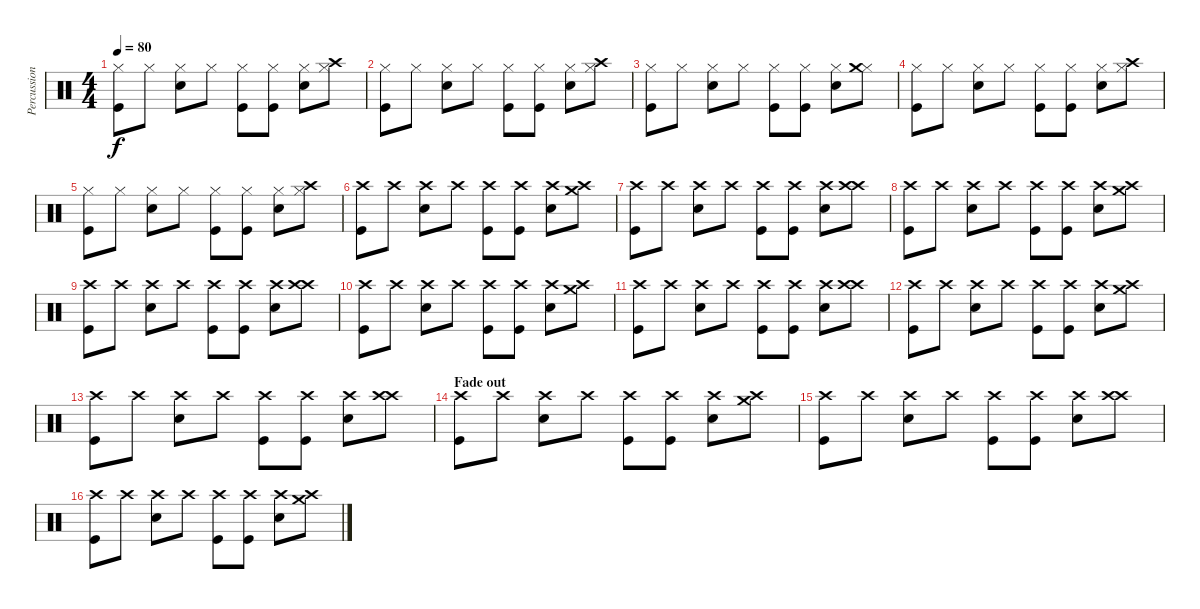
\track ("Percussions" "Percussion") {instrument percussion}
\staff {score}
\articulation defaults
\ts (4 4)
\tempo 80
\clef neutral
\ks c
("Hi-Hat (closed)" "Kick (hit)").8{dy f volume 16} "Hi-Hat (closed)".8 ("Hi-Hat (closed)" "Electric Snare (hit)").8 "Hi-Hat (closed)".8 ("Hi-Hat (closed)" "Kick (hit)").8 ("Hi-Hat (closed)" "Kick (hit)").8 ("Hi-Hat (closed)" "Electric Snare (hit)").8 ("Hi-Hat (closed)" "Crash high (hit)").8 |
("Hi-Hat (closed)" "Kick (hit)").8{volume 16} "Hi-Hat (closed)".8 ("Hi-Hat (closed)" "Electric Snare (hit)").8 "Hi-Hat (closed)".8 ("Hi-Hat (closed)" "Kick (hit)").8 ("Hi-Hat (closed)" "Kick (hit)").8 ("Hi-Hat (closed)" "Electric Snare (hit)").8 ("Hi-Hat (closed)" "Crash high (hit)").8 |
("Hi-Hat (closed)" "Kick (hit)").8{volume 16} "Hi-Hat (closed)".8 ("Hi-Hat (closed)" "Electric Snare (hit)").8 "Hi-Hat (closed)".8 ("Hi-Hat (closed)" "Kick (hit)").8 ("Hi-Hat (closed)" "Kick (hit)").8 ("Hi-Hat (closed)" "Electric Snare (hit)").8 ("Hi-Hat (closed)" "Crash medium (hit)").8 |
("Hi-Hat (closed)" "Kick (hit)").8{volume 16} "Hi-Hat (closed)".8 ("Hi-Hat (closed)" "Electric Snare (hit)").8 "Hi-Hat (closed)".8 ("Hi-Hat (closed)" "Kick (hit)").8 ("Hi-Hat (closed)" "Kick (hit)").8 ("Hi-Hat (closed)" "Electric Snare (hit)").8 ("Hi-Hat (closed)" "Crash high (hit)").8 |
("Hi-Hat (closed)" "Kick (hit)").8{volume 16} "Hi-Hat (closed)".8 ("Hi-Hat (closed)" "Electric Snare (hit)").8 "Hi-Hat (closed)".8 ("Hi-Hat (closed)" "Kick (hit)").8 ("Hi-Hat (closed)" "Kick (hit)").8 ("Hi-Hat (closed)" "Electric Snare (hit)").8 ("Hi-Hat (closed)" "Crash high (hit)").8 |
("Crash high (hit)" "Kick (hit)").8{volume 16} "Crash high (hit)".8 ("Crash high (hit)" "Electric Snare (hit)").8 "Crash high (hit)".8 ("Crash high (hit)" "Kick (hit)").8 ("Crash high (hit)" "Kick (hit)").8 ("Crash high (hit)" "Electric Snare (hit)").8 ("Crash high (hit)" "Crash medium (hit)").8 |
("Crash high (hit)" "Kick (hit)").8{volume 16} "Crash high (hit)".8 ("Crash high (hit)" "Electric Snare (hit)").8 "Crash high (hit)".8 ("Crash high (hit)" "Kick (hit)").8 ("Crash high (hit)" "Kick (hit)").8 ("Crash high (hit)" "Electric Snare (hit)").8 ("Crash high (hit)" "Crash high (hit)").8 |
("Crash high (hit)" "Kick (hit)").8{volume 16} "Crash high (hit)".8 ("Crash high (hit)" "Electric Snare (hit)").8 "Crash high (hit)".8 ("Crash high (hit)" "Kick (hit)").8 ("Crash high (hit)" "Kick (hit)").8 ("Crash high (hit)" "Electric Snare (hit)").8 ("Crash high (hit)" "Crash medium (hit)").8 |
("Crash high (hit)" "Kick (hit)").8{volume 16} "Crash high (hit)".8 ("Crash high (hit)" "Electric Snare (hit)").8 "Crash high (hit)".8 ("Crash high (hit)" "Kick (hit)").8 ("Crash high (hit)" "Kick (hit)").8 ("Crash high (hit)" "Electric Snare (hit)").8 ("Crash high (hit)" "Crash high (hit)").8 |
("Crash high (hit)" "Kick (hit)").8{volume 16} "Crash high (hit)".8 ("Crash high (hit)" "Electric Snare (hit)").8 "Crash high (hit)".8 ("Crash high (hit)" "Kick (hit)").8 ("Crash high (hit)" "Kick (hit)").8 ("Crash high (hit)" "Electric Snare (hit)").8 ("Crash high (hit)" "Crash medium (hit)").8 |
("Crash high (hit)" "Kick (hit)").8{volume 16} "Crash high (hit)".8 ("Crash high (hit)" "Electric Snare (hit)").8 "Crash high (hit)".8 ("Crash high (hit)" "Kick (hit)").8 ("Crash high (hit)" "Kick (hit)").8 ("Crash high (hit)" "Electric Snare (hit)").8 ("Crash high (hit)" "Crash high (hit)").8 |
("Crash high (hit)" "Kick (hit)").8{volume 16} "Crash high (hit)".8 ("Crash high (hit)" "Electric Snare (hit)").8 "Crash high (hit)".8 ("Crash high (hit)" "Kick (hit)").8 ("Crash high (hit)" "Kick (hit)").8 ("Crash high (hit)" "Electric Snare (hit)").8 ("Crash high (hit)" "Crash medium (hit)").8 |
("Crash high (hit)" "Kick (hit)").8{volume 16} "Crash high (hit)".8 ("Crash high (hit)" "Electric Snare (hit)").8 "Crash high (hit)".8 ("Crash high (hit)" "Kick (hit)").8 ("Crash high (hit)" "Kick (hit)").8 ("Crash high (hit)" "Electric Snare (hit)").8 ("Crash high (hit)" "Crash high (hit)").8 |
\section ("" "Fade out")
("Crash high (hit)" "Kick (hit)").8{volume 16} "Crash high (hit)".8 ("Crash high (hit)" "Electric Snare (hit)").8 "Crash high (hit)".8 ("Crash high (hit)" "Kick (hit)").8 ("Crash high (hit)" "Kick (hit)").8 ("Crash high (hit)" "Electric Snare (hit)").8 ("Crash high (hit)" "Crash medium (hit)").8 |
("Crash high (hit)" "Kick (hit)").8{volume 16} "Crash high (hit)".8 ("Crash high (hit)" "Electric Snare (hit)").8 "Crash high (hit)".8 ("Crash high (hit)" "Kick (hit)").8 ("Crash high (hit)" "Kick (hit)").8 ("Crash high (hit)" "Electric Snare (hit)").8 ("Crash high (hit)" "Crash high (hit)").8 |
("Crash high (hit)" "Kick (hit)").8{volume 16} "Crash high (hit)".8 ("Crash high (hit)" "Electric Snare (hit)").8 "Crash high (hit)".8 ("Crash high (hit)" "Kick (hit)").8 ("Crash high (hit)" "Kick (hit)").8 ("Crash high (hit)" "Electric Snare (hit)").8 ("Crash high (hit)" "Crash medium (hit)").8
